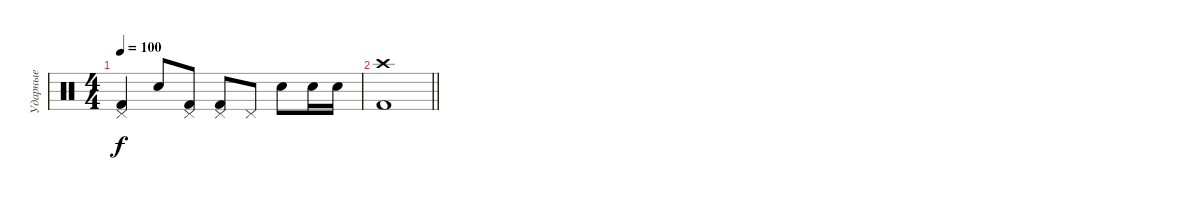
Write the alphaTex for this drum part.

\track ("Ударные" "Ударные") {instrument percussion}
\staff {score}
\articulation defaults
\ts (4 4)
\tempo 100
\clef neutral
\ks c
("Pedal Hi-Hat (hit)" "Kick (hit) 2").4{dy f} "Snare (hit) 2".8 ("Pedal Hi-Hat (hit)" "Kick (hit) 2").8 ("Pedal Hi-Hat (hit)" "Kick (hit) 2").8 "Pedal Hi-Hat (hit)".8 "Snare (hit) 2".8 "Snare (hit) 2".16 "Snare (hit) 2".16 |
\barLineRight lightlight
("Crash high (hit)" "Kick (hit) 2").1
